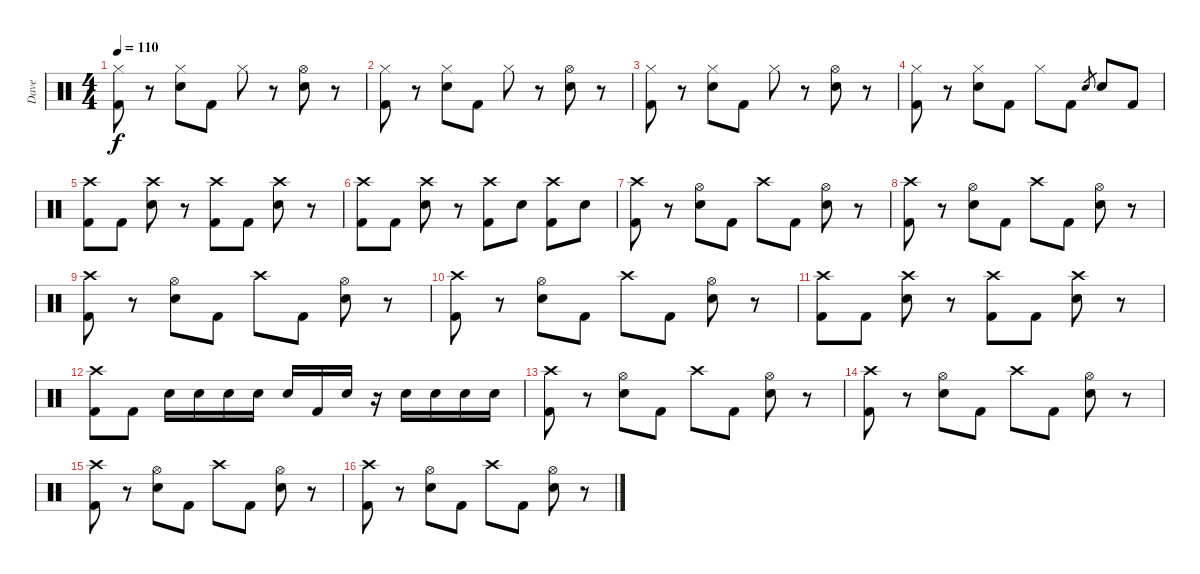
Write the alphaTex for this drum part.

\track ("Dave" "Dave") {instrument percussion}
\staff {score}
\articulation defaults
\ts (4 4)
\tempo 110
\clef neutral
\ks c
("Hi-Hat (closed)" "Kick (hit) 2").8{dy f} r.8 ("Hi-Hat (closed)" "Snare (hit) 2").8 "Kick (hit) 2".8 "Hi-Hat (closed)".8 r.8 ("Hi-Hat (open)" "Snare (hit) 2").8 r.8 |
("Hi-Hat (closed)" "Kick (hit) 2").8 r.8 ("Hi-Hat (closed)" "Snare (hit) 2").8 "Kick (hit) 2".8 "Hi-Hat (closed)".8 r.8 ("Hi-Hat (open)" "Snare (hit) 2").8 r.8 |
("Hi-Hat (closed)" "Kick (hit) 2").8 r.8 ("Hi-Hat (closed)" "Snare (hit) 2").8 "Kick (hit) 2".8 "Hi-Hat (closed)".8 r.8 ("Hi-Hat (open)" "Snare (hit) 2").8 r.8 |
("Hi-Hat (closed)" "Kick (hit) 2").8 r.8 ("Hi-Hat (closed)" "Snare (hit) 2").8 "Kick (hit) 2".8 "Hi-Hat (closed)".8 "Kick (hit) 2".8 "Snare (hit) 2".8{gr} "Snare (hit) 2".8 "Kick (hit) 2".8 |
("Crash high (hit)" "Kick (hit) 2").8 "Kick (hit) 2".8 ("Crash high (hit)" "Snare (hit) 2").8 r.8 ("Crash high (hit)" "Kick (hit) 2").8 "Kick (hit) 2".8 ("Crash high (hit)" "Snare (hit) 2").8 r.8 |
("Crash high (hit)" "Kick (hit) 2").8 "Kick (hit) 2".8 ("Crash high (hit)" "Snare (hit) 2").8 r.8 ("Crash high (hit)" "Kick (hit) 2").8 "Snare (hit) 2".8 ("Crash high (hit)" "Kick (hit) 2").8 "Snare (hit) 2".8 |
("Crash high (hit)" "Kick (hit) 2").8 r.8 ("Hi-Hat (open)" "Snare (hit) 2").8 "Kick (hit) 2".8 "Crash high (hit)".8 "Kick (hit) 2".8 ("Hi-Hat (open)" "Snare (hit) 2").8 r.8 |
("Crash high (hit)" "Kick (hit) 2").8 r.8 ("Hi-Hat (open)" "Snare (hit) 2").8 "Kick (hit) 2".8 "Crash high (hit)".8 "Kick (hit) 2".8 ("Hi-Hat (open)" "Snare (hit) 2").8 r.8 |
("Crash high (hit)" "Kick (hit) 2").8 r.8 ("Hi-Hat (open)" "Snare (hit) 2").8 "Kick (hit) 2".8 "Crash high (hit)".8 "Kick (hit) 2".8 ("Hi-Hat (open)" "Snare (hit) 2").8 r.8 |
("Crash high (hit)" "Kick (hit) 2").8 r.8 ("Hi-Hat (open)" "Snare (hit) 2").8 "Kick (hit) 2".8 "Crash high (hit)".8 "Kick (hit) 2".8 ("Hi-Hat (open)" "Snare (hit) 2").8 r.8 |
("Crash high (hit)" "Kick (hit) 2").8 "Kick (hit) 2".8 ("Crash high (hit)" "Snare (hit) 2").8 r.8 ("Crash high (hit)" "Kick (hit) 2").8 "Kick (hit) 2".8 ("Crash high (hit)" "Snare (hit) 2").8 r.8 |
("Crash high (hit)" "Kick (hit) 2").8 "Kick (hit) 2".8 "Snare (hit) 2".16 "Snare (hit) 2".16 "Snare (hit) 2".16 "Snare (hit) 2".16 "Snare (hit) 2".16 "Kick (hit) 2".16 "Snare (hit) 2".16 r.16 "Snare (hit) 2".16 "Snare (hit) 2".16 "Snare (hit) 2".16 "Snare (hit) 2".16 |
("Crash high (hit)" "Kick (hit) 2").8 r.8 ("Hi-Hat (open)" "Snare (hit) 2").8 "Kick (hit) 2".8 "Crash high (hit)".8 "Kick (hit) 2".8 ("Hi-Hat (open)" "Snare (hit) 2").8 r.8 |
("Crash high (hit)" "Kick (hit) 2").8 r.8 ("Hi-Hat (open)" "Snare (hit) 2").8 "Kick (hit) 2".8 "Crash high (hit)".8 "Kick (hit) 2".8 ("Hi-Hat (open)" "Snare (hit) 2").8 r.8 |
("Crash high (hit)" "Kick (hit) 2").8 r.8 ("Hi-Hat (open)" "Snare (hit) 2").8 "Kick (hit) 2".8 "Crash high (hit)".8 "Kick (hit) 2".8 ("Hi-Hat (open)" "Snare (hit) 2").8 r.8 |
("Crash high (hit)" "Kick (hit) 2").8 r.8 ("Hi-Hat (open)" "Snare (hit) 2").8 "Kick (hit) 2".8 "Crash high (hit)".8 "Kick (hit) 2".8 ("Hi-Hat (open)" "Snare (hit) 2").8 r.8
